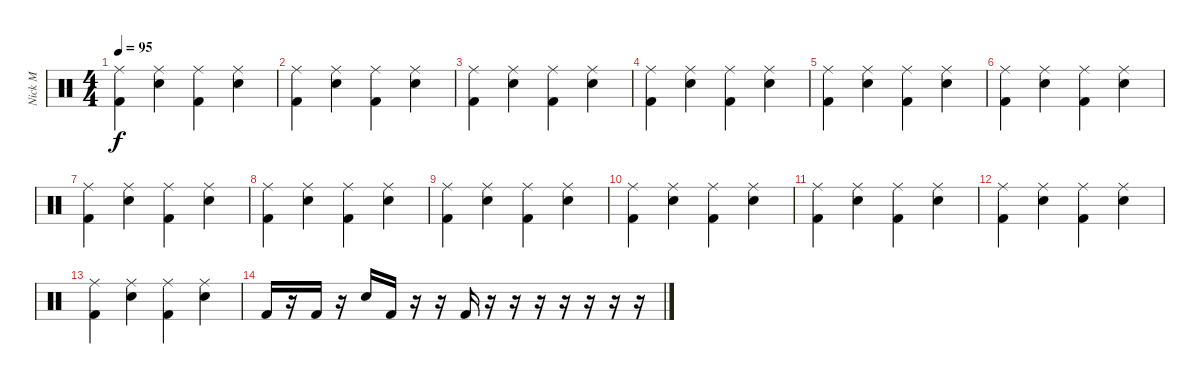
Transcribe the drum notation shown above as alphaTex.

\track ("Nick M" "Nick M") {instrument percussion}
\staff {score}
\articulation defaults
\ts (4 4)
\tempo 95
\clef neutral
\ks c
("Ride (middle)" "Kick (hit) 2").4{dy f} ("Ride (middle)" "Snare (hit) 2").4 ("Ride (middle)" "Kick (hit) 2").4 ("Ride (middle)" "Snare (hit) 2").4 |
("Ride (middle)" "Kick (hit) 2").4 ("Ride (middle)" "Snare (hit) 2").4 ("Ride (middle)" "Kick (hit) 2").4 ("Ride (middle)" "Snare (hit) 2").4 |
("Ride (middle)" "Kick (hit) 2").4 ("Ride (middle)" "Snare (hit) 2").4 ("Ride (middle)" "Kick (hit) 2").4 ("Ride (middle)" "Snare (hit) 2").4 |
("Ride (middle)" "Kick (hit) 2").4 ("Ride (middle)" "Snare (hit) 2").4 ("Ride (middle)" "Kick (hit) 2").4 ("Ride (middle)" "Snare (hit) 2").4 |
("Ride (middle)" "Kick (hit) 2").4 ("Ride (middle)" "Snare (hit) 2").4 ("Ride (middle)" "Kick (hit) 2").4 ("Ride (middle)" "Snare (hit) 2").4 |
("Ride (middle)" "Kick (hit) 2").4 ("Ride (middle)" "Snare (hit) 2").4 ("Ride (middle)" "Kick (hit) 2").4 ("Ride (middle)" "Snare (hit) 2").4 |
("Ride (middle)" "Kick (hit) 2").4 ("Ride (middle)" "Snare (hit) 2").4 ("Ride (middle)" "Kick (hit) 2").4 ("Ride (middle)" "Snare (hit) 2").4 |
("Ride (middle)" "Kick (hit) 2").4 ("Ride (middle)" "Snare (hit) 2").4 ("Ride (middle)" "Kick (hit) 2").4 ("Ride (middle)" "Snare (hit) 2").4 |
("Ride (middle)" "Kick (hit) 2").4 ("Ride (middle)" "Snare (hit) 2").4 ("Ride (middle)" "Kick (hit) 2").4 ("Ride (middle)" "Snare (hit) 2").4 |
("Ride (middle)" "Kick (hit) 2").4 ("Ride (middle)" "Snare (hit) 2").4 ("Ride (middle)" "Kick (hit) 2").4 ("Ride (middle)" "Snare (hit) 2").4 |
("Ride (middle)" "Kick (hit) 2").4 ("Ride (middle)" "Snare (hit) 2").4 ("Ride (middle)" "Kick (hit) 2").4 ("Ride (middle)" "Snare (hit) 2").4 |
("Ride (middle)" "Kick (hit) 2").4 ("Ride (middle)" "Snare (hit) 2").4 ("Ride (middle)" "Kick (hit) 2").4 ("Ride (middle)" "Snare (hit) 2").4 |
("Ride (middle)" "Kick (hit) 2").4 ("Ride (middle)" "Snare (hit) 2").4 ("Ride (middle)" "Kick (hit) 2").4 ("Ride (middle)" "Snare (hit) 2").4 |
"Kick (hit) 2".16 r.16 "Kick (hit) 2".16 r.16 "Snare (hit) 2".16 "Kick (hit) 2".16 r.16 r.16 "Kick (hit) 2".16 r.16 r.16 r.16 r.16 r.16 r.16 r.16
